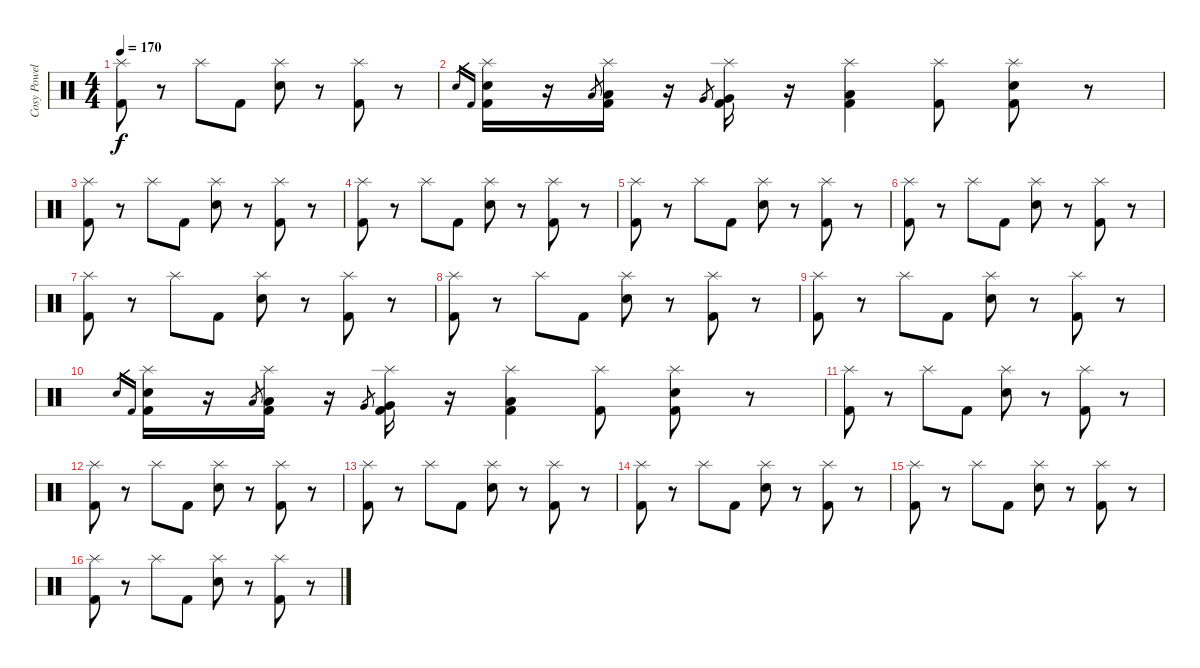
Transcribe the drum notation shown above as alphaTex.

\track ("Cosy Powell" "Cosy Powel") {instrument percussion}
\staff {score}
\articulation defaults
\ts (4 4)
\tempo 170
\clef neutral
\ks c
("Splash (hit)" "Kick (hit) 2").8{dy f} r.8 "Splash (hit)".8 "Kick (hit) 2".8 ("Splash (hit)" "Snare (hit) 2").8 r.8 ("Splash (hit)" "Kick (hit) 2").8 r.8 |
"Snare (hit) 2".16{gr} "Kick (hit) 2".16{gr} ("Splash (hit)" "Snare (hit) 2" "Kick (hit) 2").16 r.16 "Low Floor Tom (hit)".8{gr} ("Splash (hit)" "Low Floor Tom (hit)" "Kick (hit) 2").16 r.16 "Very Low Tom (hit)".8{gr} ("Splash (hit)" "Very Low Tom (hit)" "Kick (hit) 2").16 r.16 ("Splash (hit)" "Low Tom (hit)" "Kick (hit) 2").4 ("Splash (hit)" "Kick (hit) 2").8 ("Splash (hit)" "Snare (hit) 2" "Kick (hit) 2").8 r.8 |
("Splash (hit)" "Kick (hit) 2").8 r.8 "Splash (hit)".8 "Kick (hit) 2".8 ("Splash (hit)" "Snare (hit) 2").8 r.8 ("Splash (hit)" "Kick (hit) 2").8 r.8 |
("Splash (hit)" "Kick (hit) 2").8 r.8 "Splash (hit)".8 "Kick (hit) 2".8 ("Splash (hit)" "Snare (hit) 2").8 r.8 ("Splash (hit)" "Kick (hit) 2").8 r.8 |
("Splash (hit)" "Kick (hit) 2").8 r.8 "Splash (hit)".8 "Kick (hit) 2".8 ("Splash (hit)" "Snare (hit) 2").8 r.8 ("Splash (hit)" "Kick (hit) 2").8 r.8 |
("Splash (hit)" "Kick (hit) 2").8 r.8 "Splash (hit)".8 "Kick (hit) 2".8 ("Splash (hit)" "Snare (hit) 2").8 r.8 ("Splash (hit)" "Kick (hit) 2").8 r.8 |
("Splash (hit)" "Kick (hit) 2").8 r.8 "Splash (hit)".8 "Kick (hit) 2".8 ("Splash (hit)" "Snare (hit) 2").8 r.8 ("Splash (hit)" "Kick (hit) 2").8 r.8 |
("Splash (hit)" "Kick (hit) 2").8 r.8 "Splash (hit)".8 "Kick (hit) 2".8 ("Splash (hit)" "Snare (hit) 2").8 r.8 ("Splash (hit)" "Kick (hit) 2").8 r.8 |
("Splash (hit)" "Kick (hit) 2").8 r.8 "Splash (hit)".8 "Kick (hit) 2".8 ("Splash (hit)" "Snare (hit) 2").8 r.8 ("Splash (hit)" "Kick (hit) 2").8 r.8 |
"Snare (hit) 2".16{gr} "Kick (hit) 2".16{gr} ("Splash (hit)" "Snare (hit) 2" "Kick (hit) 2").16 r.16 "Low Floor Tom (hit)".8{gr} ("Splash (hit)" "Low Floor Tom (hit)" "Kick (hit) 2").16 r.16 "Very Low Tom (hit)".8{gr} ("Splash (hit)" "Very Low Tom (hit)" "Kick (hit) 2").16 r.16 ("Splash (hit)" "Low Tom (hit)" "Kick (hit) 2").4 ("Splash (hit)" "Kick (hit) 2").8 ("Splash (hit)" "Snare (hit) 2" "Kick (hit) 2").8 r.8 |
("Splash (hit)" "Kick (hit) 2").8 r.8 "Splash (hit)".8 "Kick (hit) 2".8 ("Splash (hit)" "Snare (hit) 2").8 r.8 ("Splash (hit)" "Kick (hit) 2").8 r.8 |
("Splash (hit)" "Kick (hit) 2").8 r.8 "Splash (hit)".8 "Kick (hit) 2".8 ("Splash (hit)" "Snare (hit) 2").8 r.8 ("Splash (hit)" "Kick (hit) 2").8 r.8 |
("Splash (hit)" "Kick (hit) 2").8 r.8 "Splash (hit)".8 "Kick (hit) 2".8 ("Splash (hit)" "Snare (hit) 2").8 r.8 ("Splash (hit)" "Kick (hit) 2").8 r.8 |
("Splash (hit)" "Kick (hit) 2").8 r.8 "Splash (hit)".8 "Kick (hit) 2".8 ("Splash (hit)" "Snare (hit) 2").8 r.8 ("Splash (hit)" "Kick (hit) 2").8 r.8 |
("Splash (hit)" "Kick (hit) 2").8 r.8 "Splash (hit)".8 "Kick (hit) 2".8 ("Splash (hit)" "Snare (hit) 2").8 r.8 ("Splash (hit)" "Kick (hit) 2").8 r.8 |
("Splash (hit)" "Kick (hit) 2").8 r.8 "Splash (hit)".8 "Kick (hit) 2".8 ("Splash (hit)" "Snare (hit) 2").8 r.8 ("Splash (hit)" "Kick (hit) 2").8 r.8
